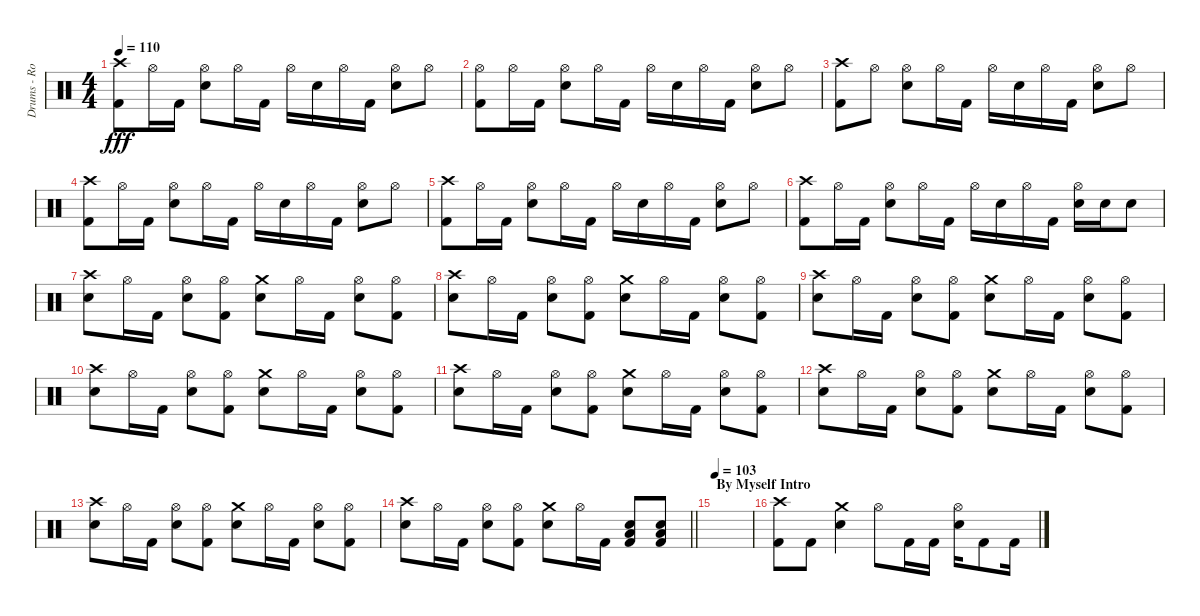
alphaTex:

\track ("Drums - Rob Bourdon" "Drums - Ro") {instrument percussion}
\staff {score}
\articulation defaults
\ts (4 4)
\tempo 110
\clef neutral
\ks c
("Crash high (hit)" "Kick (hit) 2").8{dy fff} "Hi-Hat (open)".16 "Kick (hit) 2".16 ("Hi-Hat (open)" "Snare (hit) 2").8 "Hi-Hat (open)".16 "Kick (hit) 2".16 "Hi-Hat (open)".16 "Snare (hit) 2".16 "Hi-Hat (open)".16 "Kick (hit) 2".16 ("Hi-Hat (open)" "Snare (hit) 2").8 "Hi-Hat (open)".8 |
("Hi-Hat (open)" "Kick (hit) 2").8 "Hi-Hat (open)".16 "Kick (hit) 2".16 ("Hi-Hat (open)" "Snare (hit) 2").8 "Hi-Hat (open)".16 "Kick (hit) 2".16 "Hi-Hat (open)".16 "Snare (hit) 2".16 "Hi-Hat (open)".16 "Kick (hit) 2".16 ("Hi-Hat (open)" "Snare (hit) 2").8 "Hi-Hat (open)".8 |
("Crash high (hit)" "Kick (hit) 2").8 "Hi-Hat (open)".8 ("Hi-Hat (open)" "Snare (hit) 2").8 "Hi-Hat (open)".16 "Kick (hit) 2".16 "Hi-Hat (open)".16 "Snare (hit) 2".16 "Hi-Hat (open)".16 "Kick (hit) 2".16 ("Hi-Hat (open)" "Snare (hit) 2").8 "Hi-Hat (open)".8 |
("Crash high (hit)" "Kick (hit) 2").8 "Hi-Hat (open)".16 "Kick (hit) 2".16 ("Hi-Hat (open)" "Snare (hit) 2").8 "Hi-Hat (open)".16 "Kick (hit) 2".16 "Hi-Hat (open)".16 "Snare (hit) 2".16 "Hi-Hat (open)".16 "Kick (hit) 2".16 ("Hi-Hat (open)" "Snare (hit) 2").8 "Hi-Hat (open)".8 |
("Crash high (hit)" "Kick (hit) 2").8 "Hi-Hat (open)".16 "Kick (hit) 2".16 ("Hi-Hat (open)" "Snare (hit) 2").8 "Hi-Hat (open)".16 "Kick (hit) 2".16 "Hi-Hat (open)".16 "Snare (hit) 2".16 "Hi-Hat (open)".16 "Kick (hit) 2".16 ("Hi-Hat (open)" "Snare (hit) 2").8 "Hi-Hat (open)".8 |
("Crash high (hit)" "Kick (hit) 2").8 "Hi-Hat (open)".16 "Kick (hit) 2".16 ("Hi-Hat (open)" "Snare (hit) 2").8 "Hi-Hat (open)".16 "Kick (hit) 2".16 "Hi-Hat (open)".16 "Snare (hit) 2".16 "Hi-Hat (open)".16 "Kick (hit) 2".16 ("Hi-Hat (open)" "Snare (hit) 2").16 "Snare (hit) 2".16 "Snare (hit) 2".8 |
("Crash high (hit)" "Snare (hit) 2").8 "Hi-Hat (open)".16 "Kick (hit) 2".16 ("Hi-Hat (open)" "Snare (hit) 2").8 ("Hi-Hat (open)" "Kick (hit) 2").8 ("Crash medium (hit)" "Snare (hit) 2").8 "Hi-Hat (open)".16 "Kick (hit) 2".16 ("Hi-Hat (open)" "Snare (hit) 2").8 ("Hi-Hat (open)" "Kick (hit) 2").8 |
("Crash high (hit)" "Snare (hit) 2").8 "Hi-Hat (open)".16 "Kick (hit) 2".16 ("Hi-Hat (open)" "Snare (hit) 2").8 ("Hi-Hat (open)" "Kick (hit) 2").8 ("Crash medium (hit)" "Snare (hit) 2").8 "Hi-Hat (open)".16 "Kick (hit) 2".16 ("Hi-Hat (open)" "Snare (hit) 2").8 ("Hi-Hat (open)" "Kick (hit) 2").8 |
("Crash high (hit)" "Snare (hit) 2").8 "Hi-Hat (open)".16 "Kick (hit) 2".16 ("Hi-Hat (open)" "Snare (hit) 2").8 ("Hi-Hat (open)" "Kick (hit) 2").8 ("Crash medium (hit)" "Snare (hit) 2").8 "Hi-Hat (open)".16 "Kick (hit) 2".16 ("Hi-Hat (open)" "Snare (hit) 2").8 ("Hi-Hat (open)" "Kick (hit) 2").8 |
("Crash high (hit)" "Snare (hit) 2").8 "Hi-Hat (open)".16 "Kick (hit) 2".16 ("Hi-Hat (open)" "Snare (hit) 2").8 ("Hi-Hat (open)" "Kick (hit) 2").8 ("Crash medium (hit)" "Snare (hit) 2").8 "Hi-Hat (open)".16 "Kick (hit) 2".16 ("Hi-Hat (open)" "Snare (hit) 2").8 ("Hi-Hat (open)" "Kick (hit) 2").8 |
("Crash high (hit)" "Snare (hit) 2").8 "Hi-Hat (open)".16 "Kick (hit) 2".16 ("Hi-Hat (open)" "Snare (hit) 2").8 ("Hi-Hat (open)" "Kick (hit) 2").8 ("Crash medium (hit)" "Snare (hit) 2").8 "Hi-Hat (open)".16 "Kick (hit) 2".16 ("Hi-Hat (open)" "Snare (hit) 2").8 ("Hi-Hat (open)" "Kick (hit) 2").8 |
("Crash high (hit)" "Snare (hit) 2").8 "Hi-Hat (open)".16 "Kick (hit) 2".16 ("Hi-Hat (open)" "Snare (hit) 2").8 ("Hi-Hat (open)" "Kick (hit) 2").8 ("Crash medium (hit)" "Snare (hit) 2").8 "Hi-Hat (open)".16 "Kick (hit) 2".16 ("Hi-Hat (open)" "Snare (hit) 2").8 ("Hi-Hat (open)" "Kick (hit) 2").8 |
("Crash high (hit)" "Snare (hit) 2").8 "Hi-Hat (open)".16 "Kick (hit) 2".16 ("Hi-Hat (open)" "Snare (hit) 2").8 ("Hi-Hat (open)" "Kick (hit) 2").8 ("Crash medium (hit)" "Snare (hit) 2").8 "Hi-Hat (open)".16 "Kick (hit) 2".16 ("Hi-Hat (open)" "Snare (hit) 2").8 ("Hi-Hat (open)" "Kick (hit) 2").8 |
\barLineRight lightlight
("Crash high (hit)" "Snare (hit) 2").8 "Hi-Hat (open)".16 "Kick (hit) 2".16 ("Hi-Hat (open)" "Snare (hit) 2").8 ("Hi-Hat (open)" "Kick (hit) 2").8 ("Crash medium (hit)" "Snare (hit) 2").8 "Hi-Hat (open)".16 "Kick (hit) 2".16 ("Snare (hit) 2" "Low Tom (hit)" "Kick (hit) 2").8 ("Snare (hit) 2" "Low Tom (hit)" "Kick (hit) 2").8 |
\section ("" "By Myself Intro")
\tempo 103
|
("Crash high (hit)" "Kick (hit) 2").8 "Kick (hit) 2".8 ("Crash medium (hit)" "Snare (hit) 2").4 "Hi-Hat (open)".8 "Kick (hit) 2".16 "Kick (hit) 2".16 ("Hi-Hat (open)" "Snare (hit) 2").16 "Kick (hit) 2".8 "Kick (hit) 2".16
